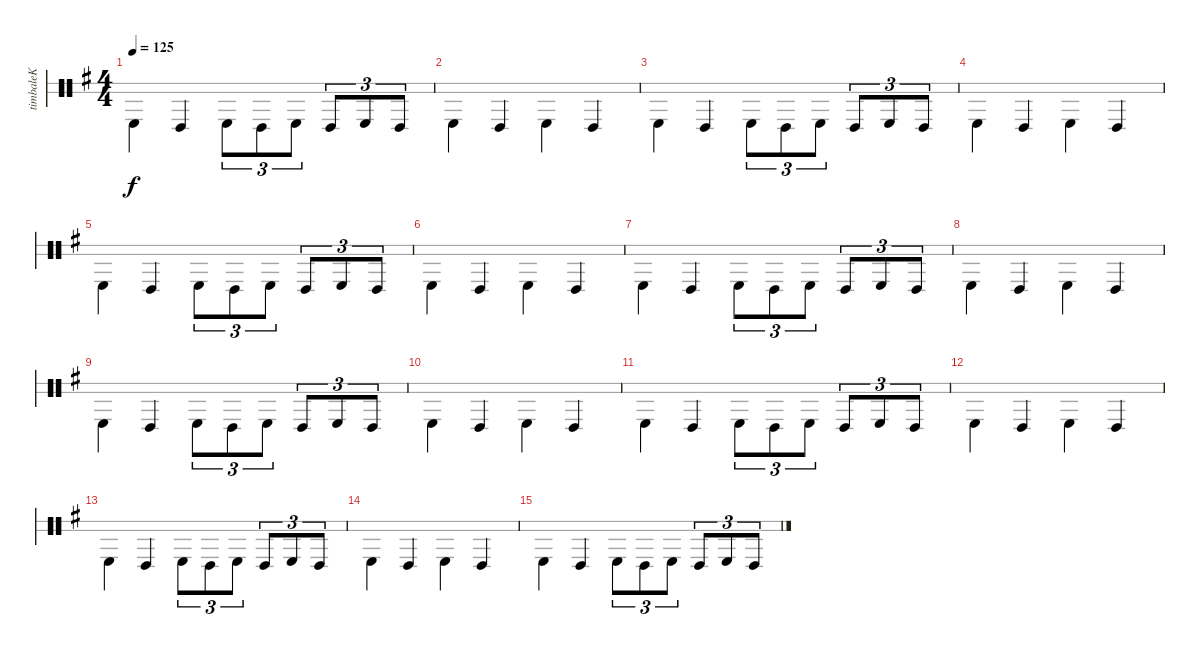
\defaultSystemsLayout 4
\bracketExtendMode groupsimilarinstruments
\otherSystemsTrackNameOrientation horizontal
\track ("Timbale" "timbaleK") {instrument percussion}
\staff {score 2}
\articulation defaults
\ts (4 4)
\tempo 125
\clef neutral
\scale
0.333333
\ks g "Timbale high (hit)"{acc forcenatural}.4{dy f beam Down} "Timbale low (hit)"{acc forcenatural}.4{beam Up} "Timbale high (hit)"{acc forcenatural}.8{tu (3 2) beam Down} "Timbale low (hit)"{acc forcenatural}.8{tu (3 2) beam Down} "Timbale high (hit)"{acc forcenatural}.8{tu (3 2) beam Down} "Timbale low (hit)"{acc forcenatural}.8{tu (3 2) beam Up} "Timbale high (hit)"{acc forcenatural}.8{tu (3 2) beam Up} "Timbale low (hit)"{acc forcenatural}.8{tu (3 2) beam Up}
|
\scale
0.333333 "Timbale high (hit)"{acc forcenatural}.4{beam Down} "Timbale low (hit)"{acc forcenatural}.4{beam Up} "Timbale high (hit)"{acc forcenatural}.4{beam Down} "Timbale low (hit)"{acc forcenatural}.4{beam Up} |
\scale
0.333333 "Timbale high (hit)"{acc forcenatural}.4{beam Down} "Timbale low (hit)"{acc forcenatural}.4{beam Up} "Timbale high (hit)"{acc forcenatural}.8{tu (3 2) beam Down} "Timbale low (hit)"{acc forcenatural}.8{tu (3 2) beam Down} "Timbale high (hit)"{acc forcenatural}.8{tu (3 2) beam Down} "Timbale low (hit)"{acc forcenatural}.8{tu (3 2) beam Up} "Timbale high (hit)"{acc forcenatural}.8{tu (3 2) beam Up} "Timbale low (hit)"{acc forcenatural}.8{tu (3 2) beam Up} |
\scale
0.333333 "Timbale high (hit)"{acc forcenatural}.4{beam Down} "Timbale low (hit)"{acc forcenatural}.4{beam Up} "Timbale high (hit)"{acc forcenatural}.4{beam Down} "Timbale low (hit)"{acc forcenatural}.4{beam Up} |
\scale
0.333333 "Timbale high (hit)"{acc forcenatural}.4{beam Down} "Timbale low (hit)"{acc forcenatural}.4{beam Up} "Timbale high (hit)"{acc forcenatural}.8{tu (3 2) beam Down} "Timbale low (hit)"{acc forcenatural}.8{tu (3 2) beam Down} "Timbale high (hit)"{acc forcenatural}.8{tu (3 2) beam Down} "Timbale low (hit)"{acc forcenatural}.8{tu (3 2) beam Up} "Timbale high (hit)"{acc forcenatural}.8{tu (3 2) beam Up} "Timbale low (hit)"{acc forcenatural}.8{tu (3 2) beam Up} |
\scale
0.333333 "Timbale high (hit)"{acc forcenatural}.4{beam Down} "Timbale low (hit)"{acc forcenatural}.4{beam Up} "Timbale high (hit)"{acc forcenatural}.4{beam Down} "Timbale low (hit)"{acc forcenatural}.4{beam Up} |
\scale
0.333333 "Timbale high (hit)"{acc forcenatural}.4{beam Down} "Timbale low (hit)"{acc forcenatural}.4{beam Up} "Timbale high (hit)"{acc forcenatural}.8{tu (3 2) beam Down} "Timbale low (hit)"{acc forcenatural}.8{tu (3 2) beam Down} "Timbale high (hit)"{acc forcenatural}.8{tu (3 2) beam Down} "Timbale low (hit)"{acc forcenatural}.8{tu (3 2) beam Up} "Timbale high (hit)"{acc forcenatural}.8{tu (3 2) beam Up} "Timbale low (hit)"{acc forcenatural}.8{tu (3 2) beam Up} |
\scale
0.333333 "Timbale high (hit)"{acc forcenatural}.4{beam Down} "Timbale low (hit)"{acc forcenatural}.4{beam Up} "Timbale high (hit)"{acc forcenatural}.4{beam Down} "Timbale low (hit)"{acc forcenatural}.4{beam Up} |
\scale
0.333333 "Timbale high (hit)"{acc forcenatural}.4{beam Down} "Timbale low (hit)"{acc forcenatural}.4{beam Up} "Timbale high (hit)"{acc forcenatural}.8{tu (3 2) beam Down} "Timbale low (hit)"{acc forcenatural}.8{tu (3 2) beam Down} "Timbale high (hit)"{acc forcenatural}.8{tu (3 2) beam Down} "Timbale low (hit)"{acc forcenatural}.8{tu (3 2) beam Up} "Timbale high (hit)"{acc forcenatural}.8{tu (3 2) beam Up} "Timbale low (hit)"{acc forcenatural}.8{tu (3 2) beam Up} |
\scale
0.333333 "Timbale high (hit)"{acc forcenatural}.4{beam Down} "Timbale low (hit)"{acc forcenatural}.4{beam Up} "Timbale high (hit)"{acc forcenatural}.4{beam Down} "Timbale low (hit)"{acc forcenatural}.4{beam Up} |
\scale
0.333333 "Timbale high (hit)"{acc forcenatural}.4{beam Down} "Timbale low (hit)"{acc forcenatural}.4{beam Up} "Timbale high (hit)"{acc forcenatural}.8{tu (3 2) beam Down} "Timbale low (hit)"{acc forcenatural}.8{tu (3 2) beam Down} "Timbale high (hit)"{acc forcenatural}.8{tu (3 2) beam Down} "Timbale low (hit)"{acc forcenatural}.8{tu (3 2) beam Up} "Timbale high (hit)"{acc forcenatural}.8{tu (3 2) beam Up} "Timbale low (hit)"{acc forcenatural}.8{tu (3 2) beam Up} |
\scale
0.333333 "Timbale high (hit)"{acc forcenatural}.4{beam Down} "Timbale low (hit)"{acc forcenatural}.4{beam Up} "Timbale high (hit)"{acc forcenatural}.4{beam Down} "Timbale low (hit)"{acc forcenatural}.4{beam Up} |
\scale
0.333333 "Timbale high (hit)"{acc forcenatural}.4{beam Down} "Timbale low (hit)"{acc forcenatural}.4{beam Up} "Timbale high (hit)"{acc forcenatural}.8{tu (3 2) beam Down} "Timbale low (hit)"{acc forcenatural}.8{tu (3 2) beam Down} "Timbale high (hit)"{acc forcenatural}.8{tu (3 2) beam Down} "Timbale low (hit)"{acc forcenatural}.8{tu (3 2) beam Up} "Timbale high (hit)"{acc forcenatural}.8{tu (3 2) beam Up} "Timbale low (hit)"{acc forcenatural}.8{tu (3 2) beam Up} |
\scale
0.333333 "Timbale high (hit)"{acc forcenatural}.4{beam Down} "Timbale low (hit)"{acc forcenatural}.4{beam Up} "Timbale high (hit)"{acc forcenatural}.4{beam Down} "Timbale low (hit)"{acc forcenatural}.4{beam Up} |
\scale
0.333333 "Timbale high (hit)"{acc forcenatural}.4{beam Down} "Timbale low (hit)"{acc forcenatural}.4{beam Up} "Timbale high (hit)"{acc forcenatural}.8{tu (3 2) beam Down} "Timbale low (hit)"{acc forcenatural}.8{tu (3 2) beam Down} "Timbale high (hit)"{acc forcenatural}.8{tu (3 2) beam Down} "Timbale low (hit)"{acc forcenatural}.8{tu (3 2) beam Up} "Timbale high (hit)"{acc forcenatural}.8{tu (3 2) beam Up} "Timbale low (hit)"{acc forcenatural}.8{tu (3 2) beam Up} |
\scale
0.333333
